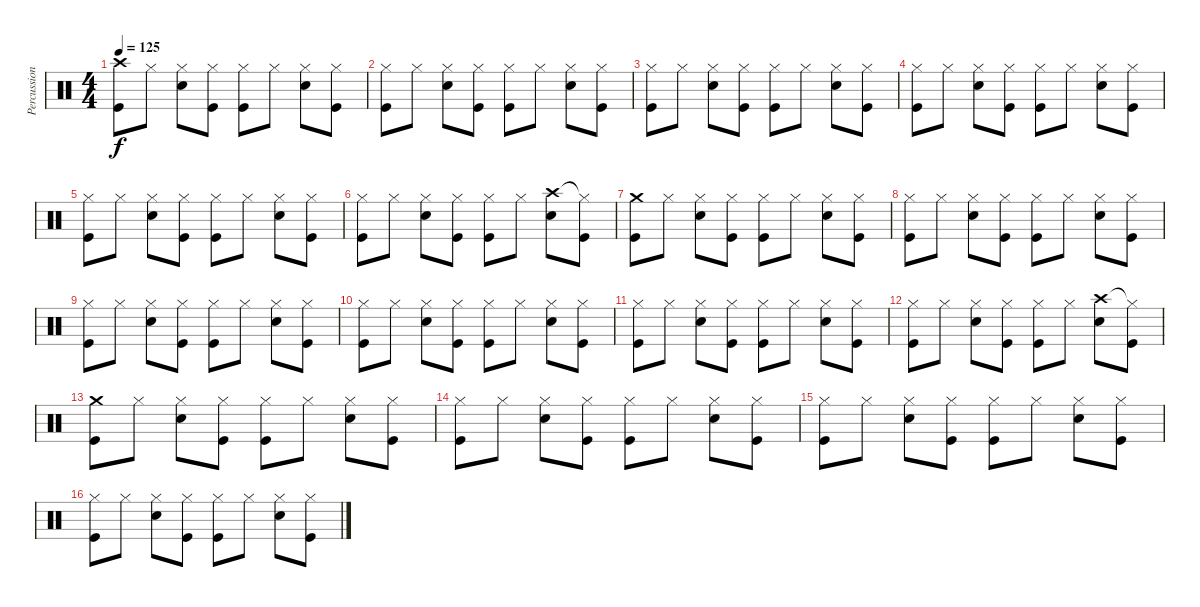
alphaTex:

\track ("Percussion" "Percussion") {instrument percussion}
\staff {score}
\articulation defaults
\ts (4 4)
\tempo 125
\clef neutral
\ks c
("Crash high (hit)" "Kick (hit)").8{dy f} "Hi-Hat (closed)".8 ("Hi-Hat (closed)" "Electric Snare (hit)").8 ("Hi-Hat (closed)" "Kick (hit)").8 ("Hi-Hat (closed)" "Kick (hit)").8 "Hi-Hat (closed)".8 ("Hi-Hat (closed)" "Electric Snare (hit)").8 ("Hi-Hat (closed)" "Kick (hit)").8 |
("Hi-Hat (closed)" "Kick (hit)").8 "Hi-Hat (closed)".8 ("Hi-Hat (closed)" "Electric Snare (hit)").8 ("Hi-Hat (closed)" "Kick (hit)").8 ("Hi-Hat (closed)" "Kick (hit)").8 "Hi-Hat (closed)".8 ("Hi-Hat (closed)" "Electric Snare (hit)").8 ("Hi-Hat (closed)" "Kick (hit)").8 |
("Hi-Hat (closed)" "Kick (hit)").8 "Hi-Hat (closed)".8 ("Hi-Hat (closed)" "Electric Snare (hit)").8 ("Hi-Hat (closed)" "Kick (hit)").8 ("Hi-Hat (closed)" "Kick (hit)").8 "Hi-Hat (closed)".8 ("Hi-Hat (closed)" "Electric Snare (hit)").8 ("Hi-Hat (closed)" "Kick (hit)").8 |
("Hi-Hat (closed)" "Kick (hit)").8 "Hi-Hat (closed)".8 ("Hi-Hat (closed)" "Electric Snare (hit)").8 ("Hi-Hat (closed)" "Kick (hit)").8 ("Hi-Hat (closed)" "Kick (hit)").8 "Hi-Hat (closed)".8 ("Hi-Hat (closed)" "Electric Snare (hit)").8 ("Hi-Hat (closed)" "Kick (hit)").8 |
("Hi-Hat (closed)" "Kick (hit)").8 "Hi-Hat (closed)".8 ("Hi-Hat (closed)" "Electric Snare (hit)").8 ("Hi-Hat (closed)" "Kick (hit)").8 ("Hi-Hat (closed)" "Kick (hit)").8 "Hi-Hat (closed)".8 ("Hi-Hat (closed)" "Electric Snare (hit)").8 ("Hi-Hat (closed)" "Kick (hit)").8 |
("Hi-Hat (closed)" "Kick (hit)").8 "Hi-Hat (closed)".8 ("Hi-Hat (closed)" "Electric Snare (hit)").8 ("Hi-Hat (closed)" "Kick (hit)").8 ("Hi-Hat (closed)" "Kick (hit)").8 "Hi-Hat (closed)".8 ("Crash high (hit)" "Electric Snare (hit)").8 ("Hi-Hat (closed)"{t} "Kick (hit)").8 |
("Crash medium (hit)" "Kick (hit)").8 "Hi-Hat (closed)".8 ("Hi-Hat (closed)" "Electric Snare (hit)").8 ("Hi-Hat (closed)" "Kick (hit)").8 ("Hi-Hat (closed)" "Kick (hit)").8 "Hi-Hat (closed)".8 ("Hi-Hat (closed)" "Electric Snare (hit)").8 ("Hi-Hat (closed)" "Kick (hit)").8 |
("Hi-Hat (closed)" "Kick (hit)").8 "Hi-Hat (closed)".8 ("Hi-Hat (closed)" "Electric Snare (hit)").8 ("Hi-Hat (closed)" "Kick (hit)").8 ("Hi-Hat (closed)" "Kick (hit)").8 "Hi-Hat (closed)".8 ("Hi-Hat (closed)" "Electric Snare (hit)").8 ("Hi-Hat (closed)" "Kick (hit)").8 |
("Hi-Hat (closed)" "Kick (hit)").8 "Hi-Hat (closed)".8 ("Hi-Hat (closed)" "Electric Snare (hit)").8 ("Hi-Hat (closed)" "Kick (hit)").8 ("Hi-Hat (closed)" "Kick (hit)").8 "Hi-Hat (closed)".8 ("Hi-Hat (closed)" "Electric Snare (hit)").8 ("Hi-Hat (closed)" "Kick (hit)").8 |
("Hi-Hat (closed)" "Kick (hit)").8 "Hi-Hat (closed)".8 ("Hi-Hat (closed)" "Electric Snare (hit)").8 ("Hi-Hat (closed)" "Kick (hit)").8 ("Hi-Hat (closed)" "Kick (hit)").8 "Hi-Hat (closed)".8 ("Hi-Hat (closed)" "Electric Snare (hit)").8 ("Hi-Hat (closed)" "Kick (hit)").8 |
("Hi-Hat (closed)" "Kick (hit)").8 "Hi-Hat (closed)".8 ("Hi-Hat (closed)" "Electric Snare (hit)").8 ("Hi-Hat (closed)" "Kick (hit)").8 ("Hi-Hat (closed)" "Kick (hit)").8 "Hi-Hat (closed)".8 ("Hi-Hat (closed)" "Electric Snare (hit)").8 ("Hi-Hat (closed)" "Kick (hit)").8 |
("Hi-Hat (closed)" "Kick (hit)").8 "Hi-Hat (closed)".8 ("Hi-Hat (closed)" "Electric Snare (hit)").8 ("Hi-Hat (closed)" "Kick (hit)").8 ("Hi-Hat (closed)" "Kick (hit)").8 "Hi-Hat (closed)".8 ("Crash high (hit)" "Electric Snare (hit)").8 ("Hi-Hat (closed)"{t} "Kick (hit)").8 |
("Crash medium (hit)" "Kick (hit)").8 "Hi-Hat (closed)".8 ("Hi-Hat (closed)" "Electric Snare (hit)").8 ("Hi-Hat (closed)" "Kick (hit)").8 ("Hi-Hat (closed)" "Kick (hit)").8 "Hi-Hat (closed)".8 ("Hi-Hat (closed)" "Electric Snare (hit)").8 ("Hi-Hat (closed)" "Kick (hit)").8 |
("Hi-Hat (closed)" "Kick (hit)").8 "Hi-Hat (closed)".8 ("Hi-Hat (closed)" "Electric Snare (hit)").8 ("Hi-Hat (closed)" "Kick (hit)").8 ("Hi-Hat (closed)" "Kick (hit)").8 "Hi-Hat (closed)".8 ("Hi-Hat (closed)" "Electric Snare (hit)").8 ("Hi-Hat (closed)" "Kick (hit)").8 |
("Hi-Hat (closed)" "Kick (hit)").8 "Hi-Hat (closed)".8 ("Hi-Hat (closed)" "Electric Snare (hit)").8 ("Hi-Hat (closed)" "Kick (hit)").8 ("Hi-Hat (closed)" "Kick (hit)").8 "Hi-Hat (closed)".8 ("Hi-Hat (closed)" "Electric Snare (hit)").8 ("Hi-Hat (closed)" "Kick (hit)").8 |
("Hi-Hat (closed)" "Kick (hit)").8 "Hi-Hat (closed)".8 ("Hi-Hat (closed)" "Electric Snare (hit)").8 ("Hi-Hat (closed)" "Kick (hit)").8 ("Hi-Hat (closed)" "Kick (hit)").8 "Hi-Hat (closed)".8 ("Hi-Hat (closed)" "Electric Snare (hit)").8 ("Hi-Hat (closed)" "Kick (hit)").8
